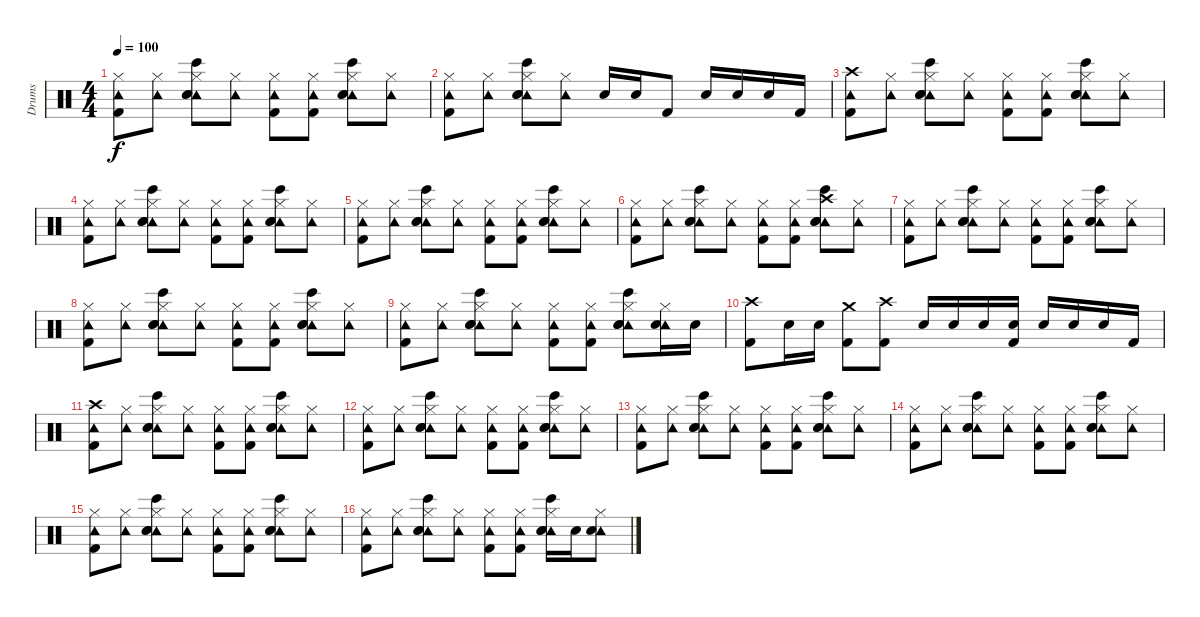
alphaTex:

\track ("Drums" "Drums") {instrument percussion}
\staff {score}
\articulation defaults
\ts (4 4)
\tempo 100
\clef neutral
\ks c
("Hi-Hat (closed)" "Tambourine (hit)" "Kick (hit) 2").8{dy f balance 8} ("Hi-Hat (closed)" "Tambourine (hit)").8 ("Hi-Hat (closed)" "Tambourine (hit)" "Snare (hit) 2" "Hand Clap (hit)" "Bongo High (hit)").8 ("Hi-Hat (closed)" "Tambourine (hit)").8 ("Hi-Hat (closed)" "Tambourine (hit)" "Kick (hit) 2").8 ("Hi-Hat (closed)" "Tambourine (hit)" "Kick (hit) 2").8 ("Hi-Hat (closed)" "Tambourine (hit)" "Snare (hit) 2" "Hand Clap (hit)" "Bongo High (hit)").8 ("Hi-Hat (closed)" "Tambourine (hit)").8 |
("Hi-Hat (closed)" "Tambourine (hit)" "Kick (hit) 2").8{balance 8} ("Hi-Hat (closed)" "Tambourine (hit)").8 ("Hi-Hat (closed)" "Tambourine (hit)" "Snare (hit) 2" "Hand Clap (hit)" "Bongo High (hit)").8 ("Hi-Hat (closed)" "Tambourine (hit)").8 "Snare (hit) 2".16 "Snare (hit) 2".16 "Kick (hit) 2".8 "Snare (hit) 2".16 "Snare (hit) 2".16 "Snare (hit) 2".16 "Kick (hit) 2".16 |
("Crash high (hit)" "Tambourine (hit)" "Kick (hit) 2").8{balance 8} ("Hi-Hat (closed)" "Tambourine (hit)").8 ("Hi-Hat (closed)" "Tambourine (hit)" "Snare (hit) 2" "Hand Clap (hit)" "Bongo High (hit)").8 ("Hi-Hat (closed)" "Tambourine (hit)").8 ("Hi-Hat (closed)" "Tambourine (hit)" "Kick (hit) 2").8 ("Hi-Hat (closed)" "Tambourine (hit)" "Kick (hit) 2").8 ("Hi-Hat (closed)" "Tambourine (hit)" "Snare (hit) 2" "Hand Clap (hit)" "Bongo High (hit)").8 ("Hi-Hat (closed)" "Tambourine (hit)").8 |
("Hi-Hat (closed)" "Tambourine (hit)" "Kick (hit) 2").8{balance 8} ("Hi-Hat (closed)" "Tambourine (hit)").8 ("Hi-Hat (closed)" "Tambourine (hit)" "Snare (hit) 2" "Hand Clap (hit)" "Bongo High (hit)").8 ("Hi-Hat (closed)" "Tambourine (hit)").8 ("Hi-Hat (closed)" "Tambourine (hit)" "Kick (hit) 2").8 ("Hi-Hat (closed)" "Tambourine (hit)" "Kick (hit) 2").8 ("Hi-Hat (closed)" "Tambourine (hit)" "Snare (hit) 2" "Hand Clap (hit)" "Bongo High (hit)").8 ("Hi-Hat (closed)" "Tambourine (hit)").8 |
("Hi-Hat (closed)" "Tambourine (hit)" "Kick (hit) 2").8{balance 8} ("Hi-Hat (closed)" "Tambourine (hit)").8 ("Hi-Hat (closed)" "Tambourine (hit)" "Snare (hit) 2" "Hand Clap (hit)" "Bongo High (hit)").8 ("Hi-Hat (closed)" "Tambourine (hit)").8 ("Hi-Hat (closed)" "Tambourine (hit)" "Kick (hit) 2").8 ("Hi-Hat (closed)" "Tambourine (hit)" "Kick (hit) 2").8 ("Hi-Hat (closed)" "Tambourine (hit)" "Snare (hit) 2" "Hand Clap (hit)" "Bongo High (hit)").8 ("Hi-Hat (closed)" "Tambourine (hit)").8 |
("Hi-Hat (closed)" "Tambourine (hit)" "Kick (hit) 2").8{balance 8} ("Hi-Hat (closed)" "Tambourine (hit)").8 ("Hi-Hat (closed)" "Tambourine (hit)" "Snare (hit) 2" "Hand Clap (hit)" "Bongo High (hit)").8 ("Hi-Hat (closed)" "Tambourine (hit)").8 ("Hi-Hat (closed)" "Tambourine (hit)" "Kick (hit) 2").8 ("Hi-Hat (closed)" "Tambourine (hit)" "Kick (hit) 2").8 ("Crash high (hit)" "Tambourine (hit)" "Snare (hit) 2" "Hand Clap (hit)" "Bongo High (hit)").8 ("Hi-Hat (closed)" "Tambourine (hit)").8 |
("Hi-Hat (closed)" "Tambourine (hit)" "Kick (hit) 2").8{balance 8} ("Hi-Hat (closed)" "Tambourine (hit)").8 ("Hi-Hat (closed)" "Tambourine (hit)" "Snare (hit) 2" "Hand Clap (hit)" "Bongo High (hit)").8 ("Hi-Hat (closed)" "Tambourine (hit)").8 ("Hi-Hat (closed)" "Tambourine (hit)" "Kick (hit) 2").8 ("Hi-Hat (closed)" "Tambourine (hit)" "Kick (hit) 2").8 ("Hi-Hat (closed)" "Tambourine (hit)" "Snare (hit) 2" "Hand Clap (hit)" "Bongo High (hit)").8 ("Hi-Hat (closed)" "Tambourine (hit)").8 |
("Hi-Hat (closed)" "Tambourine (hit)" "Kick (hit) 2").8{balance 8} ("Hi-Hat (closed)" "Tambourine (hit)").8 ("Hi-Hat (closed)" "Tambourine (hit)" "Snare (hit) 2" "Hand Clap (hit)" "Bongo High (hit)").8 ("Hi-Hat (closed)" "Tambourine (hit)").8 ("Hi-Hat (closed)" "Tambourine (hit)" "Kick (hit) 2").8 ("Hi-Hat (closed)" "Tambourine (hit)" "Kick (hit) 2").8 ("Hi-Hat (closed)" "Tambourine (hit)" "Snare (hit) 2" "Hand Clap (hit)" "Bongo High (hit)").8 ("Hi-Hat (closed)" "Tambourine (hit)").8 |
("Hi-Hat (closed)" "Tambourine (hit)" "Kick (hit) 2").8{balance 8} ("Hi-Hat (closed)" "Tambourine (hit)").8 ("Hi-Hat (closed)" "Tambourine (hit)" "Snare (hit) 2" "Hand Clap (hit)" "Bongo High (hit)").8 ("Hi-Hat (closed)" "Tambourine (hit)").8 ("Hi-Hat (closed)" "Tambourine (hit)" "Kick (hit) 2").8 ("Hi-Hat (closed)" "Tambourine (hit)" "Kick (hit) 2").8 ("Hi-Hat (closed)" "Tambourine (hit)" "Snare (hit) 2" "Hand Clap (hit)" "Bongo High (hit)").8 ("Hi-Hat (closed)" "Tambourine (hit)" "Snare (hit) 2").16 "Snare (hit) 2".16 |
("Crash high (hit)" "Kick (hit) 2").8{balance 8} "Snare (hit) 2".16 "Snare (hit) 2".16 ("Crash medium (hit)" "Kick (hit) 2").8 ("Crash high (hit)" "Kick (hit) 2").8 "Snare (hit) 2".16 "Snare (hit) 2".16 "Snare (hit) 2".16 ("Snare (hit) 2" "Kick (hit) 2").16 "Snare (hit) 2".16 "Snare (hit) 2".16 "Snare (hit) 2".16 "Kick (hit) 2".16 |
("Crash high (hit)" "Tambourine (hit)" "Kick (hit) 2").8{balance 8} ("Hi-Hat (closed)" "Tambourine (hit)").8 ("Hi-Hat (closed)" "Tambourine (hit)" "Snare (hit) 2" "Hand Clap (hit)" "Bongo High (hit)").8 ("Hi-Hat (closed)" "Tambourine (hit)").8 ("Hi-Hat (closed)" "Tambourine (hit)" "Kick (hit) 2").8 ("Hi-Hat (closed)" "Tambourine (hit)" "Kick (hit) 2").8 ("Hi-Hat (closed)" "Tambourine (hit)" "Snare (hit) 2" "Hand Clap (hit)" "Bongo High (hit)").8 ("Hi-Hat (closed)" "Tambourine (hit)").8 |
("Hi-Hat (closed)" "Tambourine (hit)" "Kick (hit) 2").8{balance 8} ("Hi-Hat (closed)" "Tambourine (hit)").8 ("Hi-Hat (closed)" "Tambourine (hit)" "Snare (hit) 2" "Hand Clap (hit)" "Bongo High (hit)").8 ("Hi-Hat (closed)" "Tambourine (hit)").8 ("Hi-Hat (closed)" "Tambourine (hit)" "Kick (hit) 2").8 ("Hi-Hat (closed)" "Tambourine (hit)" "Kick (hit) 2").8 ("Hi-Hat (closed)" "Tambourine (hit)" "Snare (hit) 2" "Hand Clap (hit)" "Bongo High (hit)").8 ("Hi-Hat (closed)" "Tambourine (hit)").8 |
("Hi-Hat (closed)" "Tambourine (hit)" "Kick (hit) 2").8{balance 8} ("Hi-Hat (closed)" "Tambourine (hit)").8 ("Hi-Hat (closed)" "Tambourine (hit)" "Snare (hit) 2" "Hand Clap (hit)" "Bongo High (hit)").8 ("Hi-Hat (closed)" "Tambourine (hit)").8 ("Hi-Hat (closed)" "Tambourine (hit)" "Kick (hit) 2").8 ("Hi-Hat (closed)" "Tambourine (hit)" "Kick (hit) 2").8 ("Hi-Hat (closed)" "Tambourine (hit)" "Snare (hit) 2" "Hand Clap (hit)" "Bongo High (hit)").8 ("Hi-Hat (closed)" "Tambourine (hit)").8 |
("Hi-Hat (closed)" "Tambourine (hit)" "Kick (hit) 2").8{balance 8} ("Hi-Hat (closed)" "Tambourine (hit)").8 ("Hi-Hat (closed)" "Tambourine (hit)" "Snare (hit) 2" "Hand Clap (hit)" "Bongo High (hit)").8 ("Hi-Hat (closed)" "Tambourine (hit)").8 ("Hi-Hat (closed)" "Tambourine (hit)" "Kick (hit) 2").8 ("Hi-Hat (closed)" "Tambourine (hit)" "Kick (hit) 2").8 ("Hi-Hat (closed)" "Tambourine (hit)" "Snare (hit) 2" "Hand Clap (hit)" "Bongo High (hit)").8 ("Hi-Hat (closed)" "Tambourine (hit)").8 |
("Hi-Hat (closed)" "Tambourine (hit)" "Kick (hit) 2").8{balance 8} ("Hi-Hat (closed)" "Tambourine (hit)").8 ("Hi-Hat (closed)" "Tambourine (hit)" "Snare (hit) 2" "Hand Clap (hit)" "Bongo High (hit)").8 ("Hi-Hat (closed)" "Tambourine (hit)").8 ("Hi-Hat (closed)" "Tambourine (hit)" "Kick (hit) 2").8 ("Hi-Hat (closed)" "Tambourine (hit)" "Kick (hit) 2").8 ("Hi-Hat (closed)" "Tambourine (hit)" "Snare (hit) 2" "Hand Clap (hit)" "Bongo High (hit)").8 ("Hi-Hat (closed)" "Tambourine (hit)").8 |
("Hi-Hat (closed)" "Tambourine (hit)" "Kick (hit) 2").8{balance 8} ("Hi-Hat (closed)" "Tambourine (hit)").8 ("Hi-Hat (closed)" "Tambourine (hit)" "Snare (hit) 2" "Hand Clap (hit)" "Bongo High (hit)").8 ("Hi-Hat (closed)" "Tambourine (hit)").8 ("Hi-Hat (closed)" "Tambourine (hit)" "Kick (hit) 2").8 ("Hi-Hat (closed)" "Tambourine (hit)" "Kick (hit) 2").8 ("Hi-Hat (closed)" "Tambourine (hit)" "Snare (hit) 2" "Hand Clap (hit)" "Bongo High (hit)").16 "Snare (hit) 2".16 ("Hi-Hat (closed)" "Tambourine (hit)" "Snare (hit) 2").8
